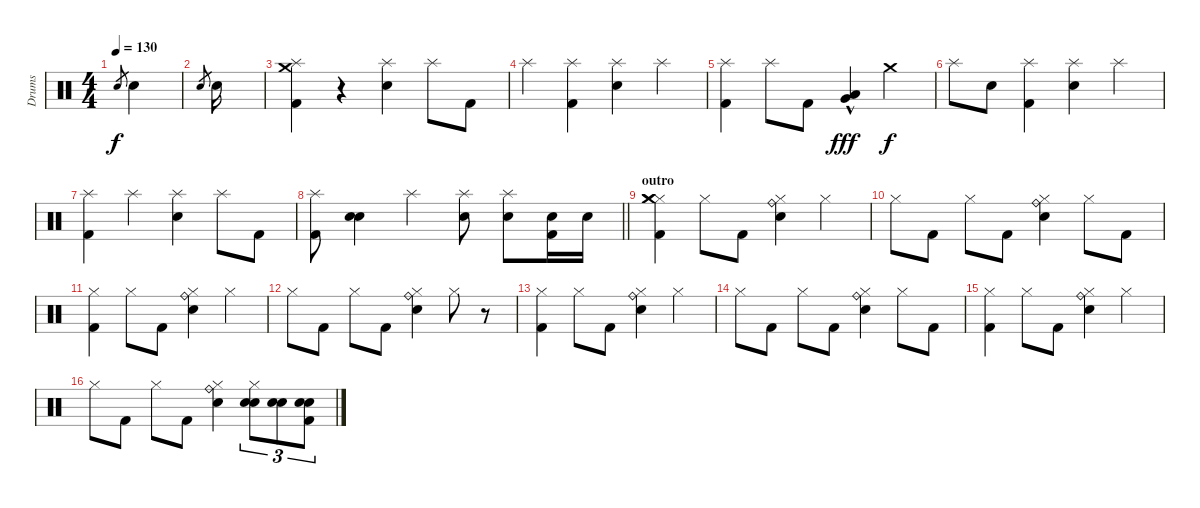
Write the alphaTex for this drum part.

\track ("Drums" "Drums") {instrument percussion}
\staff {score}
\articulation defaults
\ts (4 4)
\tempo 130
\clef neutral
\ks c "Electric Snare (hit)".8{gr dy f} "Electric Snare (hit)".4
|
"Electric Snare (hit)".8{gr} "Electric Snare (hit)".16 |
("Kick (hit) 2" "Splash (hit)" "Crash medium (hit)").4 r.4 ("Electric Snare (hit)" "Splash (hit)").4 "Splash (hit)".8 "Kick (hit) 2".8 |
"Splash (hit)".4 ("Splash (hit)" "Kick (hit) 2").4 ("Splash (hit)" "Electric Snare (hit)").4 "Splash (hit)".4 |
("Splash (hit)" "Kick (hit) 2").4 "Splash (hit)".8 "Kick (hit) 2".8 ("Very Low Tom (hit)"{hac} "Low Floor Tom (hit)"{hac}).4{dy fff} "Crash medium (hit)".4{dy f} |
"Splash (hit)".8 "Electric Snare (hit)".8 ("Splash (hit)" "Kick (hit) 2").4 ("Splash (hit)" "Electric Snare (hit)").4 "Splash (hit)".4 |
("Splash (hit)" "Kick (hit) 2").4 "Splash (hit)".4 ("Splash (hit)" "Electric Snare (hit)").4 "Splash (hit)".8 "Kick (hit) 2".8 |
\barLineRight lightlight
("Splash (hit)" "Kick (hit) 2").8 ("Electric Snare (hit)" "Electric Snare (hit)").4 "Splash (hit)".4 ("Splash (hit)" "Electric Snare (hit)").8 ("Splash (hit)" "Electric Snare (hit)").8 ("Electric Snare (hit)" "Kick (hit) 2").16 "Electric Snare (hit)".16 |
\section ("" "outro")
("Hi-Hat (closed)" "Kick (hit) 2" "Crash medium (hit)" "Crash medium (hit)").4 "Hi-Hat (closed)".8 "Kick (hit) 2".8 ("Hi-Hat (closed)" "Electric Snare (hit)" "Ride (bell)").4 "Hi-Hat (closed)".4 |
"Hi-Hat (closed)".8 "Kick (hit) 2".8 "Hi-Hat (closed)".8 "Kick (hit) 2".8 ("Hi-Hat (closed)" "Electric Snare (hit)" "Ride (bell)").4 "Hi-Hat (closed)".8 "Kick (hit) 2".8 |
("Hi-Hat (closed)" "Kick (hit) 2").4 "Hi-Hat (closed)".8 "Kick (hit) 2".8 ("Hi-Hat (closed)" "Electric Snare (hit)" "Ride (bell)").4 "Hi-Hat (closed)".4 |
"Hi-Hat (closed)".8 "Kick (hit) 2".8 "Hi-Hat (closed)".8 "Kick (hit) 2".8 ("Hi-Hat (closed)" "Electric Snare (hit)" "Ride (bell)").4 "Hi-Hat (closed)".8 r.8 |
("Hi-Hat (closed)" "Kick (hit) 2").4 "Hi-Hat (closed)".8 "Kick (hit) 2".8 ("Hi-Hat (closed)" "Electric Snare (hit)" "Ride (bell)").4 "Hi-Hat (closed)".4 |
"Hi-Hat (closed)".8 "Kick (hit) 2".8 "Hi-Hat (closed)".8 "Kick (hit) 2".8 ("Hi-Hat (closed)" "Electric Snare (hit)" "Ride (bell)").4 "Hi-Hat (closed)".8 "Kick (hit) 2".8 |
("Hi-Hat (closed)" "Kick (hit) 2").4 "Hi-Hat (closed)".8 "Kick (hit) 2".8 ("Hi-Hat (closed)" "Electric Snare (hit)" "Ride (bell)").4 "Hi-Hat (closed)".4 |
"Hi-Hat (closed)".8 "Kick (hit) 2".8 "Hi-Hat (closed)".8 "Kick (hit) 2".8 ("Hi-Hat (closed)" "Electric Snare (hit)" "Ride (bell)").4 ("Hi-Hat (closed)" "Electric Snare (hit)" "Electric Snare (hit)").8{tu (3 2)} ("Electric Snare (hit)" "Electric Snare (hit)").8{tu (3 2)} ("Kick (hit) 2" "Electric Snare (hit)" "Electric Snare (hit)").8{tu (3 2)}
